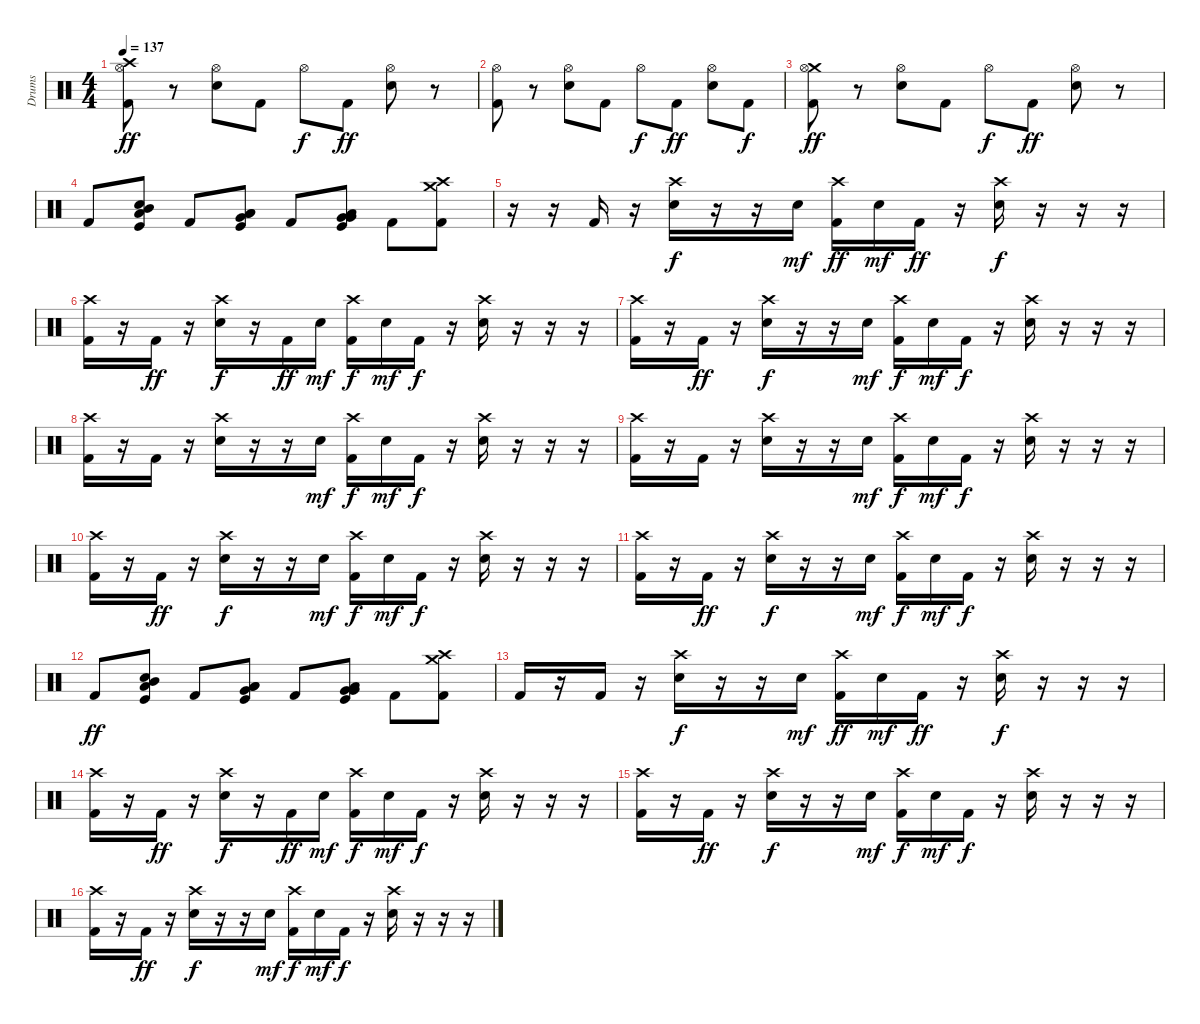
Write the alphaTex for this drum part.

\track ("Drums" "Drums") {instrument percussion}
\staff {score}
\articulation defaults
\ts (4 4)
\tempo 137
\clef neutral
\ks c
("Crash high (hit)" "Hi-Hat (open)" "Kick (hit) 2").8{dy ff} r.8 ("Hi-Hat (open)" "Electric Snare (hit)").8 "Kick (hit) 2".8 "Hi-Hat (open)".8{dy f} "Kick (hit) 2".8{dy ff} ("Hi-Hat (open)" "Electric Snare (hit)").8 r.8 |
("Hi-Hat (open)" "Kick (hit) 2").8 r.8 ("Hi-Hat (open)" "Electric Snare (hit)").8 "Kick (hit) 2".8 "Hi-Hat (open)".8{dy f} "Kick (hit) 2".8{dy ff} ("Hi-Hat (open)" "Electric Snare (hit)").8 "Kick (hit) 2".8{dy f} |
("Crash medium (hit)" "Hi-Hat (open)" "Kick (hit) 2").8{dy ff} r.8 ("Hi-Hat (open)" "Electric Snare (hit)").8 "Kick (hit) 2".8 "Hi-Hat (open)".8{dy f} "Kick (hit) 2".8{dy ff} ("Hi-Hat (open)" "Electric Snare (hit)").8 r.8 |
"Kick (hit) 2".8 ("Snare (hit) 2" "Mid Tom (hit)" "Low Tom (hit)" "Kick (hit)").8 "Kick (hit) 2".8 ("Low Tom (hit)" "Low Tom (hit)" "Very Low Tom (hit)" "Kick (hit)").8 "Kick (hit) 2".8 ("Low Tom (hit)" "Very Low Tom (hit)" "Very Low Tom (hit)" "Kick (hit)").8 "Kick (hit) 2".8 ("Crash high (hit)" "Crash medium (hit)" "Kick (hit) 2").8 |
r.16 r.16 "Kick (hit) 2".16 r.16 ("Crash high (hit)" "Electric Snare (hit)").16{dy f} r.16 r.16 "Electric Snare (hit)".16{dy mf} ("Crash high (hit)" "Kick (hit) 2").16{dy ff} "Electric Snare (hit)".16{dy mf} "Kick (hit) 2".16{dy ff} r.16 ("Crash high (hit)" "Electric Snare (hit)").16{dy f} r.16 r.16 r.16 |
("Crash high (hit)" "Kick (hit) 2").16 r.16 "Kick (hit) 2".16{dy ff} r.16 ("Crash high (hit)" "Electric Snare (hit)").16{dy f} r.16 "Kick (hit) 2".16{dy ff} "Electric Snare (hit)".16{dy mf} ("Crash high (hit)" "Kick (hit) 2").16{dy f} "Electric Snare (hit)".16{dy mf} "Kick (hit) 2".16{dy f} r.16 ("Crash high (hit)" "Electric Snare (hit)").16 r.16 r.16 r.16 |
("Crash high (hit)" "Kick (hit) 2").16 r.16 "Kick (hit) 2".16{dy ff} r.16 ("Crash high (hit)" "Electric Snare (hit)").16{dy f} r.16 r.16 "Electric Snare (hit)".16{dy mf} ("Crash high (hit)" "Kick (hit) 2").16{dy f} "Electric Snare (hit)".16{dy mf} "Kick (hit) 2".16{dy f} r.16 ("Crash high (hit)" "Electric Snare (hit)").16 r.16 r.16 r.16 |
("Crash high (hit)" "Kick (hit) 2").16 r.16 "Kick (hit) 2".16 r.16 ("Crash high (hit)" "Electric Snare (hit)").16 r.16 r.16 "Electric Snare (hit)".16{dy mf} ("Crash high (hit)" "Kick (hit) 2").16{dy f} "Electric Snare (hit)".16{dy mf} "Kick (hit) 2".16{dy f} r.16 ("Crash high (hit)" "Electric Snare (hit)").16 r.16 r.16 r.16 |
("Crash high (hit)" "Kick (hit) 2").16 r.16 "Kick (hit) 2".16 r.16 ("Crash high (hit)" "Electric Snare (hit)").16 r.16 r.16 "Electric Snare (hit)".16{dy mf} ("Crash high (hit)" "Kick (hit) 2").16{dy f} "Electric Snare (hit)".16{dy mf} "Kick (hit) 2".16{dy f} r.16 ("Crash high (hit)" "Electric Snare (hit)").16 r.16 r.16 r.16 |
("Crash high (hit)" "Kick (hit) 2").16 r.16 "Kick (hit) 2".16{dy ff} r.16 ("Crash high (hit)" "Electric Snare (hit)").16{dy f} r.16 r.16 "Electric Snare (hit)".16{dy mf} ("Crash high (hit)" "Kick (hit) 2").16{dy f} "Electric Snare (hit)".16{dy mf} "Kick (hit) 2".16{dy f} r.16 ("Crash high (hit)" "Electric Snare (hit)").16 r.16 r.16 r.16 |
("Crash high (hit)" "Kick (hit) 2").16 r.16 "Kick (hit) 2".16{dy ff} r.16 ("Crash high (hit)" "Electric Snare (hit)").16{dy f} r.16 r.16 "Electric Snare (hit)".16{dy mf} ("Crash high (hit)" "Kick (hit) 2").16{dy f} "Electric Snare (hit)".16{dy mf} "Kick (hit) 2".16{dy f} r.16 ("Crash high (hit)" "Electric Snare (hit)").16 r.16 r.16 r.16 |
"Kick (hit) 2".8{dy ff} ("Snare (hit) 2" "Mid Tom (hit)" "Low Tom (hit)" "Kick (hit)").8 "Kick (hit) 2".8 ("Low Tom (hit)" "Low Tom (hit)" "Very Low Tom (hit)" "Kick (hit)").8 "Kick (hit) 2".8 ("Low Tom (hit)" "Very Low Tom (hit)" "Very Low Tom (hit)" "Kick (hit)").8 "Kick (hit) 2".8 ("Crash high (hit)" "Crash medium (hit)" "Kick (hit) 2").8 |
"Kick (hit) 2".16 r.16 "Kick (hit) 2".16 r.16 ("Crash high (hit)" "Electric Snare (hit)").16{dy f} r.16 r.16 "Electric Snare (hit)".16{dy mf} ("Crash high (hit)" "Kick (hit) 2").16{dy ff} "Electric Snare (hit)".16{dy mf} "Kick (hit) 2".16{dy ff} r.16 ("Crash high (hit)" "Electric Snare (hit)").16{dy f} r.16 r.16 r.16 |
("Crash high (hit)" "Kick (hit) 2").16 r.16 "Kick (hit) 2".16{dy ff} r.16 ("Crash high (hit)" "Electric Snare (hit)").16{dy f} r.16 "Kick (hit) 2".16{dy ff} "Electric Snare (hit)".16{dy mf} ("Crash high (hit)" "Kick (hit) 2").16{dy f} "Electric Snare (hit)".16{dy mf} "Kick (hit) 2".16{dy f} r.16 ("Crash high (hit)" "Electric Snare (hit)").16 r.16 r.16 r.16 |
("Crash high (hit)" "Kick (hit) 2").16 r.16 "Kick (hit) 2".16{dy ff} r.16 ("Crash high (hit)" "Electric Snare (hit)").16{dy f} r.16 r.16 "Electric Snare (hit)".16{dy mf} ("Crash high (hit)" "Kick (hit) 2").16{dy f} "Electric Snare (hit)".16{dy mf} "Kick (hit) 2".16{dy f} r.16 ("Crash high (hit)" "Electric Snare (hit)").16 r.16 r.16 r.16 |
("Crash high (hit)" "Kick (hit) 2").16 r.16 "Kick (hit) 2".16{dy ff} r.16 ("Crash high (hit)" "Electric Snare (hit)").16{dy f} r.16 r.16 "Electric Snare (hit)".16{dy mf} ("Crash high (hit)" "Kick (hit) 2").16{dy f} "Electric Snare (hit)".16{dy mf} "Kick (hit) 2".16{dy f} r.16 ("Crash high (hit)" "Electric Snare (hit)").16 r.16 r.16 r.16
